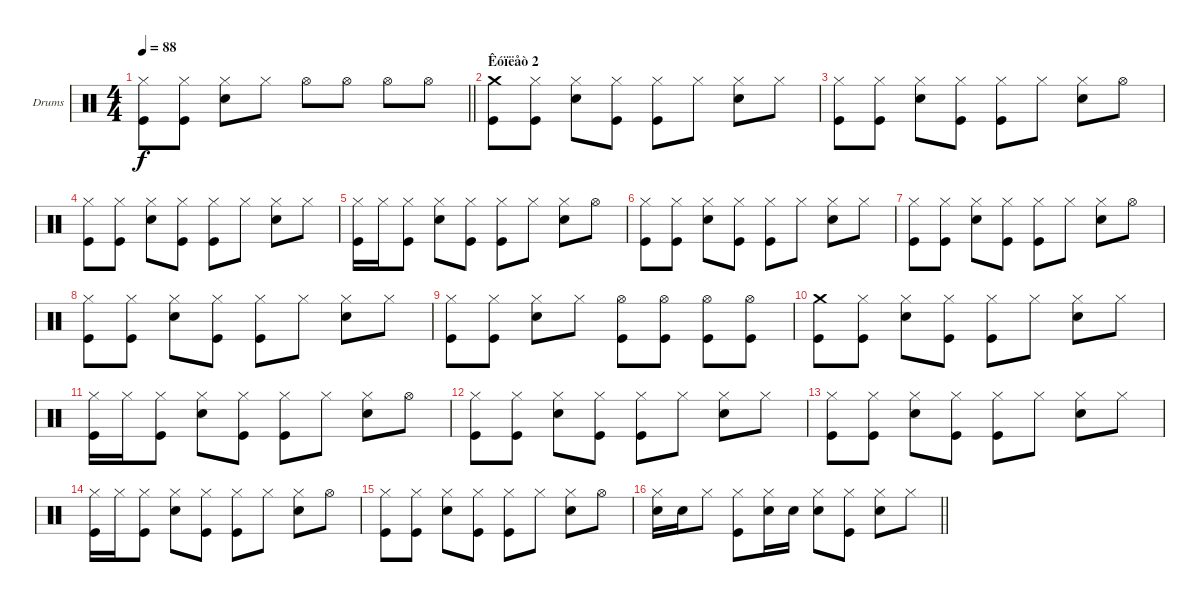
\bracketExtendMode groupsimilarinstruments
\firstSystemTrackNameOrientation horizontal
\otherSystemsTrackNameOrientation horizontal
\track ("Drumkit" "Drums") {instrument percussion}
\staff {score}
\articulation defaults
\ts (4 4)
\tempo 88
\clef neutral
\barLineRight lightlight
\ks c
("Kick (hit)" "Hi-Hat (closed)").8{dy f} ("Kick (hit)" "Hi-Hat (closed)").8 ("Snare (hit) 2" "Hi-Hat (closed)").8 "Hi-Hat (closed)".8 "Hi-Hat (open)".8 "Hi-Hat (open)".8 "Hi-Hat (open)".8 "Hi-Hat (open)".8 |
\section ("" "Êóïëåò 2")
("Kick (hit)" "Crash medium (hit)").8 ("Kick (hit)" "Hi-Hat (closed)").8 ("Snare (hit) 2" "Hi-Hat (closed)").8 ("Kick (hit)" "Hi-Hat (closed)").8 ("Kick (hit)" "Hi-Hat (closed)").8 "Hi-Hat (closed)".8 ("Snare (hit) 2" "Hi-Hat (closed)").8 "Hi-Hat (closed)".8 |
("Kick (hit)" "Hi-Hat (closed)").8 ("Kick (hit)" "Hi-Hat (closed)").8 ("Snare (hit) 2" "Hi-Hat (closed)").8 ("Kick (hit)" "Hi-Hat (closed)").8 ("Kick (hit)" "Hi-Hat (closed)").8 "Hi-Hat (closed)".8 ("Snare (hit) 2" "Hi-Hat (closed)").8 "Hi-Hat (open)".8 |
("Kick (hit)" "Hi-Hat (closed)").8 ("Kick (hit)" "Hi-Hat (closed)").8 ("Snare (hit) 2" "Hi-Hat (closed)").8 ("Kick (hit)" "Hi-Hat (closed)").8 ("Kick (hit)" "Hi-Hat (closed)").8 "Hi-Hat (closed)".8 ("Snare (hit) 2" "Hi-Hat (closed)").8 "Hi-Hat (closed)".8 |
("Kick (hit)" "Hi-Hat (closed)").16 "Hi-Hat (closed)".16 ("Kick (hit)" "Hi-Hat (closed)").8 ("Snare (hit) 2" "Hi-Hat (closed)").8 ("Kick (hit)" "Hi-Hat (closed)").8 ("Kick (hit)" "Hi-Hat (closed)").8 "Hi-Hat (closed)".8 ("Snare (hit) 2" "Hi-Hat (closed)").8 "Hi-Hat (open)".8 |
("Kick (hit)" "Hi-Hat (closed)").8 ("Kick (hit)" "Hi-Hat (closed)").8 ("Snare (hit) 2" "Hi-Hat (closed)").8 ("Kick (hit)" "Hi-Hat (closed)").8 ("Kick (hit)" "Hi-Hat (closed)").8 "Hi-Hat (closed)".8 ("Snare (hit) 2" "Hi-Hat (closed)").8 "Hi-Hat (closed)".8 |
("Kick (hit)" "Hi-Hat (closed)").8 ("Kick (hit)" "Hi-Hat (closed)").8 ("Snare (hit) 2" "Hi-Hat (closed)").8 ("Kick (hit)" "Hi-Hat (closed)").8 ("Kick (hit)" "Hi-Hat (closed)").8 "Hi-Hat (closed)".8 ("Snare (hit) 2" "Hi-Hat (closed)").8 "Hi-Hat (open)".8 |
("Kick (hit)" "Hi-Hat (closed)").8 ("Kick (hit)" "Hi-Hat (closed)").8 ("Snare (hit) 2" "Hi-Hat (closed)").8 ("Kick (hit)" "Hi-Hat (closed)").8 ("Kick (hit)" "Hi-Hat (closed)").8 "Hi-Hat (closed)".8 ("Snare (hit) 2" "Hi-Hat (closed)").8 "Hi-Hat (closed)".8 |
("Kick (hit)" "Hi-Hat (closed)").8 ("Kick (hit)" "Hi-Hat (closed)").8 ("Snare (hit) 2" "Hi-Hat (closed)").8 "Hi-Hat (closed)".8 ("Kick (hit)" "Hi-Hat (open)").8 ("Kick (hit)" "Hi-Hat (open)").8 ("Kick (hit)" "Hi-Hat (open)").8 ("Kick (hit)" "Hi-Hat (open)").8 |
("Kick (hit)" "Crash medium (hit)").8 ("Kick (hit)" "Hi-Hat (closed)").8 ("Snare (hit) 2" "Hi-Hat (closed)").8 ("Kick (hit)" "Hi-Hat (closed)").8 ("Kick (hit)" "Hi-Hat (closed)").8 "Hi-Hat (closed)".8 ("Snare (hit) 2" "Hi-Hat (closed)").8 "Hi-Hat (closed)".8 |
("Kick (hit)" "Hi-Hat (closed)").16 "Hi-Hat (closed)".16 ("Kick (hit)" "Hi-Hat (closed)").8 ("Snare (hit) 2" "Hi-Hat (closed)").8 ("Kick (hit)" "Hi-Hat (closed)").8 ("Kick (hit)" "Hi-Hat (closed)").8 "Hi-Hat (closed)".8 ("Snare (hit) 2" "Hi-Hat (closed)").8 "Hi-Hat (open)".8 |
("Kick (hit)" "Hi-Hat (closed)").8 ("Kick (hit)" "Hi-Hat (closed)").8 ("Snare (hit) 2" "Hi-Hat (closed)").8 ("Kick (hit)" "Hi-Hat (closed)").8 ("Kick (hit)" "Hi-Hat (closed)").8 "Hi-Hat (closed)".8 ("Snare (hit) 2" "Hi-Hat (closed)").8 "Hi-Hat (closed)".8 |
("Kick (hit)" "Hi-Hat (closed)").8 ("Kick (hit)" "Hi-Hat (closed)").8 ("Snare (hit) 2" "Hi-Hat (closed)").8 ("Kick (hit)" "Hi-Hat (closed)").8 ("Kick (hit)" "Hi-Hat (closed)").8 "Hi-Hat (closed)".8 ("Snare (hit) 2" "Hi-Hat (closed)").8 "Hi-Hat (closed)".8 |
("Kick (hit)" "Hi-Hat (closed)").16 "Hi-Hat (closed)".16 ("Kick (hit)" "Hi-Hat (closed)").8 ("Snare (hit) 2" "Hi-Hat (closed)").8 ("Kick (hit)" "Hi-Hat (closed)").8 ("Kick (hit)" "Hi-Hat (closed)").8 "Hi-Hat (closed)".8 ("Snare (hit) 2" "Hi-Hat (closed)").8 "Hi-Hat (open)".8 |
("Kick (hit)" "Hi-Hat (closed)").8 ("Kick (hit)" "Hi-Hat (closed)").8 ("Snare (hit) 2" "Hi-Hat (closed)").8 ("Kick (hit)" "Hi-Hat (closed)").8 ("Kick (hit)" "Hi-Hat (closed)").8 "Hi-Hat (closed)".8 ("Snare (hit) 2" "Hi-Hat (closed)").8 "Hi-Hat (open)".8 |
\barLineRight lightlight
("Snare (hit) 2" "Hi-Hat (closed)").16 "Snare (hit) 2".16 "Hi-Hat (closed)".8 ("Kick (hit)" "Hi-Hat (closed)").8 ("Snare (hit) 2" "Hi-Hat (closed)").16 "Snare (hit) 2".16 ("Snare (hit) 2" "Hi-Hat (closed)").8 ("Kick (hit)" "Hi-Hat (closed)").8 ("Snare (hit) 2" "Hi-Hat (closed)").8 "Hi-Hat (closed)".8
